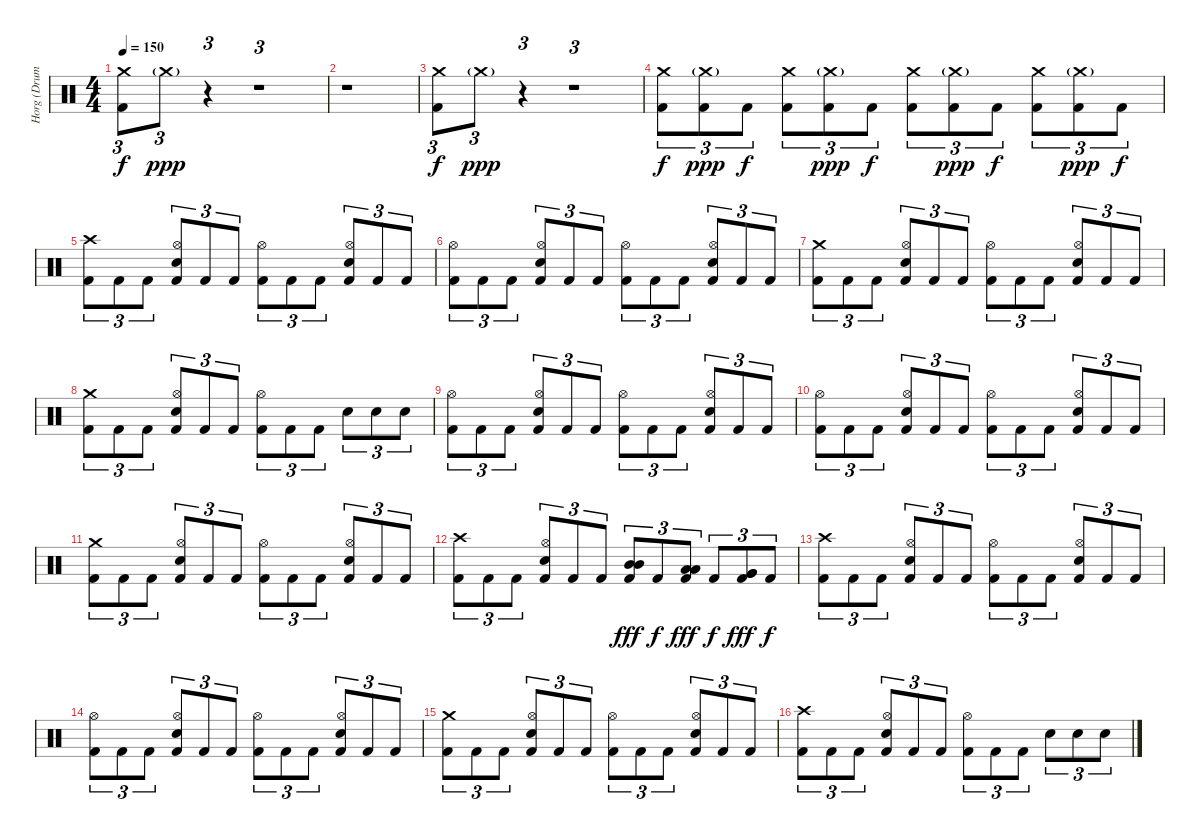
\track ("Horg (Drums)" "Horg (Drum") {instrument percussion}
\staff {score}
\articulation defaults
\ts (4 4)
\tempo 150
\clef neutral
\ks c
("Crash medium (hit)" "Kick (hit) 2").8{tu (3 2) dy f} "Crash medium (hit)"{g}.8{tu (3 2) dy ppp volume 0} r.4{tu (3 2)} r.1{tu (3 2)} |
r.1 |
("Crash medium (hit)" "Kick (hit) 2").8{tu (3 2) dy f volume 15} "Crash medium (hit)"{g}.8{tu (3 2) dy ppp volume 0} r.4{tu (3 2)} r.1{tu (3 2)} |
("Crash medium (hit)" "Kick (hit) 2").8{tu (3 2) dy f volume 15} ("Crash medium (hit)"{g} "Kick (hit) 2").8{tu (3 2) dy ppp} "Kick (hit) 2".8{tu (3 2) dy f} ("Crash medium (hit)" "Kick (hit) 2").8{tu (3 2)} ("Crash medium (hit)"{g} "Kick (hit) 2").8{tu (3 2) dy ppp} "Kick (hit) 2".8{tu (3 2) dy f} ("Crash medium (hit)" "Kick (hit) 2").8{tu (3 2)} ("Crash medium (hit)"{g} "Kick (hit) 2").8{tu (3 2) dy ppp} "Kick (hit) 2".8{tu (3 2) dy f} ("Crash medium (hit)" "Kick (hit) 2").8{tu (3 2)} ("Crash medium (hit)"{g} "Kick (hit) 2").8{tu (3 2) dy ppp} "Kick (hit) 2".8{tu (3 2) dy f} |
("Crash high (hit)" "Kick (hit) 2").8{tu (3 2) volume 15} "Kick (hit) 2".8{tu (3 2)} "Kick (hit) 2".8{tu (3 2)} ("Hi-Hat (open)" "Electric Snare (hit)" "Kick (hit) 2").8{tu (3 2)} "Kick (hit) 2".8{tu (3 2)} "Kick (hit) 2".8{tu (3 2)} ("Hi-Hat (open)" "Kick (hit) 2").8{tu (3 2)} "Kick (hit) 2".8{tu (3 2)} "Kick (hit) 2".8{tu (3 2)} ("Hi-Hat (open)" "Electric Snare (hit)" "Kick (hit) 2").8{tu (3 2)} "Kick (hit) 2".8{tu (3 2)} "Kick (hit) 2".8{tu (3 2)} |
("Hi-Hat (open)" "Kick (hit) 2").8{tu (3 2)} "Kick (hit) 2".8{tu (3 2)} "Kick (hit) 2".8{tu (3 2)} ("Hi-Hat (open)" "Electric Snare (hit)" "Kick (hit) 2").8{tu (3 2)} "Kick (hit) 2".8{tu (3 2)} "Kick (hit) 2".8{tu (3 2)} ("Hi-Hat (open)" "Kick (hit) 2").8{tu (3 2)} "Kick (hit) 2".8{tu (3 2)} "Kick (hit) 2".8{tu (3 2)} ("Hi-Hat (open)" "Electric Snare (hit)" "Kick (hit) 2").8{tu (3 2)} "Kick (hit) 2".8{tu (3 2)} "Kick (hit) 2".8{tu (3 2)} |
("Crash medium (hit)" "Kick (hit) 2").8{tu (3 2)} "Kick (hit) 2".8{tu (3 2)} "Kick (hit) 2".8{tu (3 2)} ("Hi-Hat (open)" "Electric Snare (hit)" "Kick (hit) 2").8{tu (3 2)} "Kick (hit) 2".8{tu (3 2)} "Kick (hit) 2".8{tu (3 2)} ("Hi-Hat (open)" "Kick (hit) 2").8{tu (3 2)} "Kick (hit) 2".8{tu (3 2)} "Kick (hit) 2".8{tu (3 2)} ("Hi-Hat (open)" "Electric Snare (hit)" "Kick (hit) 2").8{tu (3 2)} "Kick (hit) 2".8{tu (3 2)} "Kick (hit) 2".8{tu (3 2)} |
("Crash medium (hit)" "Kick (hit) 2").8{tu (3 2)} "Kick (hit) 2".8{tu (3 2)} "Kick (hit) 2".8{tu (3 2)} ("Hi-Hat (open)" "Electric Snare (hit)" "Kick (hit) 2").8{tu (3 2)} "Kick (hit) 2".8{tu (3 2)} "Kick (hit) 2".8{tu (3 2)} ("Hi-Hat (open)" "Kick (hit) 2").8{tu (3 2)} "Kick (hit) 2".8{tu (3 2)} "Kick (hit) 2".8{tu (3 2)} "Electric Snare (hit)".8{tu (3 2)} "Electric Snare (hit)".8{tu (3 2)} "Electric Snare (hit)".8{tu (3 2)} |
("Hi-Hat (open)" "Kick (hit) 2").8{tu (3 2)} "Kick (hit) 2".8{tu (3 2)} "Kick (hit) 2".8{tu (3 2)} ("Hi-Hat (open)" "Electric Snare (hit)" "Kick (hit) 2").8{tu (3 2)} "Kick (hit) 2".8{tu (3 2)} "Kick (hit) 2".8{tu (3 2)} ("Hi-Hat (open)" "Kick (hit) 2").8{tu (3 2)} "Kick (hit) 2".8{tu (3 2)} "Kick (hit) 2".8{tu (3 2)} ("Hi-Hat (open)" "Electric Snare (hit)" "Kick (hit) 2").8{tu (3 2)} "Kick (hit) 2".8{tu (3 2)} "Kick (hit) 2".8{tu (3 2)} |
("Hi-Hat (open)" "Kick (hit) 2").8{tu (3 2)} "Kick (hit) 2".8{tu (3 2)} "Kick (hit) 2".8{tu (3 2)} ("Hi-Hat (open)" "Electric Snare (hit)" "Kick (hit) 2").8{tu (3 2)} "Kick (hit) 2".8{tu (3 2)} "Kick (hit) 2".8{tu (3 2)} ("Hi-Hat (open)" "Kick (hit) 2").8{tu (3 2)} "Kick (hit) 2".8{tu (3 2)} "Kick (hit) 2".8{tu (3 2)} ("Hi-Hat (open)" "Electric Snare (hit)" "Kick (hit) 2").8{tu (3 2)} "Kick (hit) 2".8{tu (3 2)} "Kick (hit) 2".8{tu (3 2)} |
("Crash medium (hit)" "Kick (hit) 2").8{tu (3 2)} "Kick (hit) 2".8{tu (3 2)} "Kick (hit) 2".8{tu (3 2)} ("Hi-Hat (open)" "Electric Snare (hit)" "Kick (hit) 2").8{tu (3 2)} "Kick (hit) 2".8{tu (3 2)} "Kick (hit) 2".8{tu (3 2)} ("Hi-Hat (open)" "Kick (hit) 2").8{tu (3 2)} "Kick (hit) 2".8{tu (3 2)} "Kick (hit) 2".8{tu (3 2)} ("Hi-Hat (open)" "Electric Snare (hit)" "Kick (hit) 2").8{tu (3 2)} "Kick (hit) 2".8{tu (3 2)} "Kick (hit) 2".8{tu (3 2)} |
("Crash high (hit)" "Kick (hit) 2").8{tu (3 2)} "Kick (hit) 2".8{tu (3 2)} "Kick (hit) 2".8{tu (3 2)} ("Hi-Hat (open)" "Electric Snare (hit)" "Kick (hit) 2").8{tu (3 2)} "Kick (hit) 2".8{tu (3 2)} "Kick (hit) 2".8{tu (3 2)} ("Mid Tom (hit)" "Mid Tom (hit)" "Kick (hit) 2").8{tu (3 2) dy fff} "Kick (hit) 2".8{tu (3 2) dy f} ("Low Tom (hit)" "Low Tom (hit)" "Kick (hit) 2").8{tu (3 2) dy fff} "Kick (hit) 2".8{tu (3 2) dy f} ("Very Low Tom (hit)" "Very Low Tom (hit)" "Kick (hit) 2").8{tu (3 2) dy fff} "Kick (hit) 2".8{tu (3 2) dy f} |
("Crash high (hit)" "Kick (hit) 2").8{tu (3 2)} "Kick (hit) 2".8{tu (3 2)} "Kick (hit) 2".8{tu (3 2)} ("Hi-Hat (open)" "Electric Snare (hit)" "Kick (hit) 2").8{tu (3 2)} "Kick (hit) 2".8{tu (3 2)} "Kick (hit) 2".8{tu (3 2)} ("Hi-Hat (open)" "Kick (hit) 2").8{tu (3 2)} "Kick (hit) 2".8{tu (3 2)} "Kick (hit) 2".8{tu (3 2)} ("Hi-Hat (open)" "Electric Snare (hit)" "Kick (hit) 2").8{tu (3 2)} "Kick (hit) 2".8{tu (3 2)} "Kick (hit) 2".8{tu (3 2)} |
("Hi-Hat (open)" "Kick (hit) 2").8{tu (3 2)} "Kick (hit) 2".8{tu (3 2)} "Kick (hit) 2".8{tu (3 2)} ("Hi-Hat (open)" "Electric Snare (hit)" "Kick (hit) 2").8{tu (3 2)} "Kick (hit) 2".8{tu (3 2)} "Kick (hit) 2".8{tu (3 2)} ("Hi-Hat (open)" "Kick (hit) 2").8{tu (3 2)} "Kick (hit) 2".8{tu (3 2)} "Kick (hit) 2".8{tu (3 2)} ("Hi-Hat (open)" "Electric Snare (hit)" "Kick (hit) 2").8{tu (3 2)} "Kick (hit) 2".8{tu (3 2)} "Kick (hit) 2".8{tu (3 2)} |
("Crash medium (hit)" "Kick (hit) 2").8{tu (3 2)} "Kick (hit) 2".8{tu (3 2)} "Kick (hit) 2".8{tu (3 2)} ("Hi-Hat (open)" "Electric Snare (hit)" "Kick (hit) 2").8{tu (3 2)} "Kick (hit) 2".8{tu (3 2)} "Kick (hit) 2".8{tu (3 2)} ("Hi-Hat (open)" "Kick (hit) 2").8{tu (3 2)} "Kick (hit) 2".8{tu (3 2)} "Kick (hit) 2".8{tu (3 2)} ("Hi-Hat (open)" "Electric Snare (hit)" "Kick (hit) 2").8{tu (3 2)} "Kick (hit) 2".8{tu (3 2)} "Kick (hit) 2".8{tu (3 2)} |
("Crash high (hit)" "Kick (hit) 2").8{tu (3 2)} "Kick (hit) 2".8{tu (3 2)} "Kick (hit) 2".8{tu (3 2)} ("Hi-Hat (open)" "Electric Snare (hit)" "Kick (hit) 2").8{tu (3 2)} "Kick (hit) 2".8{tu (3 2)} "Kick (hit) 2".8{tu (3 2)} ("Hi-Hat (open)" "Kick (hit) 2").8{tu (3 2)} "Kick (hit) 2".8{tu (3 2)} "Kick (hit) 2".8{tu (3 2)} "Electric Snare (hit)".8{tu (3 2)} "Electric Snare (hit)".8{tu (3 2)} "Electric Snare (hit)".8{tu (3 2)}
